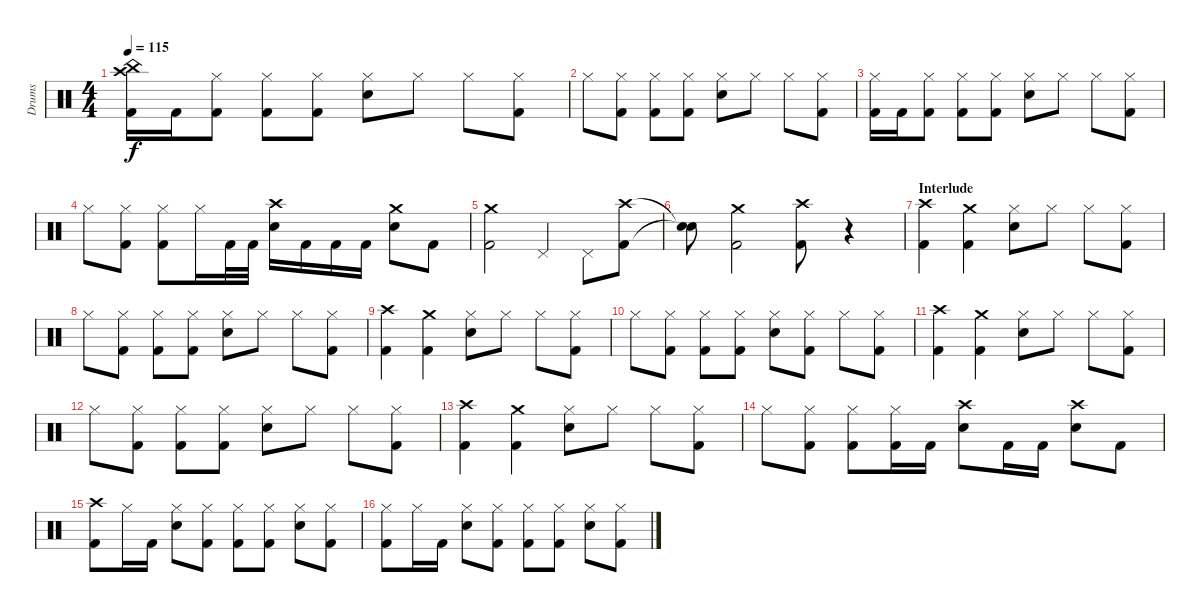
\track ("Drums" "Drums") {instrument percussion}
\staff {score}
\articulation defaults
\ts (4 4)
\tempo 115
\clef neutral
\ks c
("Crash high (hit)" "China (hit)" "Kick (hit) 2").16{dy f} "Kick (hit) 2".16 ("Hi-Hat (closed)" "Kick (hit) 2").8 ("Hi-Hat (closed)" "Kick (hit) 2").8 ("Hi-Hat (closed)" "Kick (hit) 2").8 ("Hi-Hat (closed)" "Snare (hit) 2").8 "Hi-Hat (closed)".8 "Hi-Hat (closed)".8 ("Hi-Hat (closed)" "Kick (hit) 2").8 |
"Hi-Hat (closed)".8 ("Hi-Hat (closed)" "Kick (hit) 2").8 ("Hi-Hat (closed)" "Kick (hit) 2").8 ("Hi-Hat (closed)" "Kick (hit) 2").8 ("Hi-Hat (closed)" "Snare (hit) 2").8 "Hi-Hat (closed)".8 "Hi-Hat (closed)".8 ("Hi-Hat (closed)" "Kick (hit) 2").8 |
("Hi-Hat (closed)" "Kick (hit) 2").16 "Kick (hit) 2".16 ("Hi-Hat (closed)" "Kick (hit) 2").8 ("Hi-Hat (closed)" "Kick (hit) 2").8 ("Hi-Hat (closed)" "Kick (hit) 2").8 ("Hi-Hat (closed)" "Snare (hit) 2").8 "Hi-Hat (closed)".8 "Hi-Hat (closed)".8 ("Hi-Hat (closed)" "Kick (hit) 2").8 |
"Hi-Hat (closed)".8 ("Hi-Hat (closed)" "Kick (hit) 2").8 ("Hi-Hat (closed)" "Kick (hit) 2").8 "Hi-Hat (closed)".16 "Kick (hit) 2".32 "Kick (hit) 2".32 ("Crash high (hit)" "Snare (hit) 2").16 "Kick (hit) 2".16 "Kick (hit) 2".16 "Kick (hit) 2".16 ("Crash medium (hit)" "Snare (hit) 2").8 "Kick (hit) 2".8 |
("Crash medium (hit)" "Kick (hit) 2").2 "Pedal Hi-Hat (hit)".4 "Pedal Hi-Hat (hit)".8 ("Crash high (hit)" "Kick (hit) 2").8 |
("Snare (hit)"{t} "Snare (hit)"{t}).8 ("Crash medium (hit)" "Kick (hit) 2").2 ("Crash high (hit)" "Kick (hit) 2").8 r.4 |
\section ("" "Interlude")
("Crash high (hit)" "Kick (hit) 2").4 ("Crash medium (hit)" "Kick (hit) 2").4 ("Hi-Hat (closed)" "Snare (hit) 2").8 "Hi-Hat (closed)".8 "Hi-Hat (closed)".8 ("Hi-Hat (closed)" "Kick (hit) 2").8 |
"Hi-Hat (closed)".8 ("Hi-Hat (closed)" "Kick (hit) 2").8 ("Hi-Hat (closed)" "Kick (hit) 2").8 ("Hi-Hat (closed)" "Kick (hit) 2").8 ("Hi-Hat (closed)" "Snare (hit) 2").8 "Hi-Hat (closed)".8 "Hi-Hat (closed)".8 ("Hi-Hat (closed)" "Kick (hit) 2").8 |
("Crash high (hit)" "Kick (hit) 2").4 ("Crash medium (hit)" "Kick (hit) 2").4 ("Hi-Hat (closed)" "Snare (hit) 2").8 "Hi-Hat (closed)".8 "Hi-Hat (closed)".8 ("Hi-Hat (closed)" "Kick (hit) 2").8 |
"Hi-Hat (closed)".8 ("Hi-Hat (closed)" "Kick (hit) 2").8 ("Hi-Hat (closed)" "Kick (hit) 2").8 ("Hi-Hat (closed)" "Kick (hit) 2").8 ("Hi-Hat (closed)" "Snare (hit) 2").8 ("Hi-Hat (closed)" "Kick (hit) 2").8 "Hi-Hat (closed)".8 ("Hi-Hat (closed)" "Kick (hit) 2").8 |
("Crash high (hit)" "Kick (hit) 2").4 ("Crash medium (hit)" "Kick (hit) 2").4 ("Hi-Hat (closed)" "Snare (hit) 2").8 "Hi-Hat (closed)".8 "Hi-Hat (closed)".8 ("Hi-Hat (closed)" "Kick (hit) 2").8 |
"Hi-Hat (closed)".8 ("Hi-Hat (closed)" "Kick (hit) 2").8 ("Hi-Hat (closed)" "Kick (hit) 2").8 ("Hi-Hat (closed)" "Kick (hit) 2").8 ("Hi-Hat (closed)" "Snare (hit) 2").8 "Hi-Hat (closed)".8 "Hi-Hat (closed)".8 ("Hi-Hat (closed)" "Kick (hit) 2").8 |
("Crash high (hit)" "Kick (hit) 2").4 ("Crash medium (hit)" "Kick (hit) 2").4 ("Hi-Hat (closed)" "Snare (hit) 2").8 "Hi-Hat (closed)".8 "Hi-Hat (closed)".8 ("Hi-Hat (closed)" "Kick (hit) 2").8 |
"Hi-Hat (closed)".8 ("Hi-Hat (closed)" "Kick (hit) 2").8 ("Hi-Hat (closed)" "Kick (hit) 2").8 ("Hi-Hat (closed)" "Kick (hit) 2").16 "Kick (hit) 2".16 ("Crash high (hit)" "Snare (hit) 2").8 "Kick (hit) 2".16 "Kick (hit) 2".16 ("Crash high (hit)" "Snare (hit) 2").8 "Kick (hit) 2".8 |
("Crash high (hit)" "Kick (hit) 2").8 "Hi-Hat (closed)".16 "Kick (hit) 2".16 ("Hi-Hat (closed)" "Snare (hit) 2").8 ("Hi-Hat (closed)" "Kick (hit) 2").8 ("Hi-Hat (closed)" "Kick (hit) 2").8 ("Hi-Hat (closed)" "Kick (hit) 2").8 ("Hi-Hat (closed)" "Snare (hit) 2").8 ("Hi-Hat (closed)" "Kick (hit) 2").8 |
("Hi-Hat (closed)" "Kick (hit) 2").8 "Hi-Hat (closed)".16 "Kick (hit) 2".16 ("Hi-Hat (closed)" "Snare (hit) 2").8 ("Hi-Hat (closed)" "Kick (hit) 2").8 ("Hi-Hat (closed)" "Kick (hit) 2").8 ("Hi-Hat (closed)" "Kick (hit) 2").8 ("Hi-Hat (closed)" "Snare (hit) 2").8 ("Hi-Hat (closed)" "Kick (hit) 2").8
